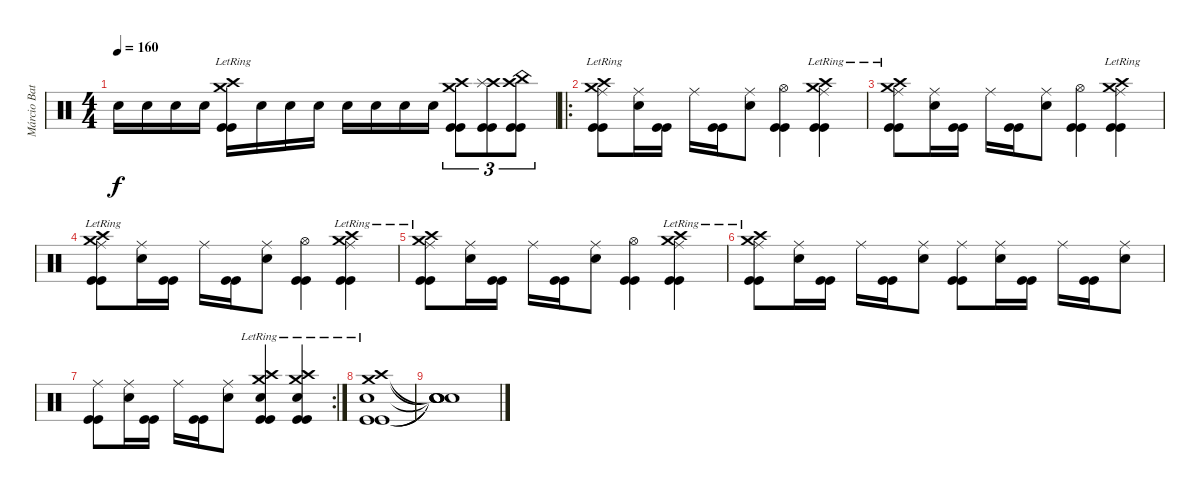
\track ("Márcio Batista" "Márcio Bat") {instrument percussion}
\staff {score}
\articulation defaults
\ts (4 4)
\tempo 160
\clef neutral
\ks c "Snare (hit) 2".16{dy f} "Snare (hit) 2".16 "Snare (hit) 2".16 "Snare (hit) 2".16
("Crash high (hit)"{lr} "Crash medium (hit)"{lr} "Kick (hit)" "Kick (hit)").16 "Snare (hit) 2".16 "Snare (hit) 2".16 "Snare (hit) 2".16 "Snare (hit) 2".16 "Snare (hit) 2".16 "Snare (hit) 2".16 "Snare (hit) 2".16 ("Crash high (hit)" "Crash medium (hit)" "Kick (hit)" "Kick (hit)").8{tu (3 2)} ("Crash high (hit)" "Splash (hit)" "Kick (hit)" "Kick (hit)").8{tu (3 2)} ("Crash high (hit)" "China (hit)" "Kick (hit)" "Kick (hit)").8{tu (3 2)} |
\ro
("Crash high (hit)"{lr} "Crash medium (hit)"{lr} "Ride (middle)" "Kick (hit)" "Kick (hit)").8 ("Snare (hit) 2" "Ride (middle)").16 ("Kick (hit)" "Kick (hit)").16 "Ride (middle)".16 ("Kick (hit)" "Kick (hit)").16 ("Snare (hit) 2" "Ride (middle)").8 ("Hi-Hat (open)" "Kick (hit)" "Kick (hit)").4 ("Crash high (hit)"{lr} "Crash medium (hit)"{lr} "Ride (middle)" "Kick (hit)" "Kick (hit)").4 |
("Crash high (hit)"{lr} "Crash medium (hit)"{lr} "Ride (middle)" "Kick (hit)" "Kick (hit)").8 ("Snare (hit) 2" "Ride (middle)").16 ("Kick (hit)" "Kick (hit)").16 "Ride (middle)".16 ("Kick (hit)" "Kick (hit)").16 ("Snare (hit) 2" "Ride (middle)").8 ("Hi-Hat (open)" "Kick (hit)" "Kick (hit)").4 ("Crash high (hit)"{lr} "Crash medium (hit)"{lr} "Ride (middle)" "Kick (hit)" "Kick (hit)").4 |
("Crash high (hit)"{lr} "Crash medium (hit)"{lr} "Ride (middle)" "Kick (hit)" "Kick (hit)").8 ("Snare (hit) 2" "Ride (middle)").16 ("Kick (hit)" "Kick (hit)").16 "Ride (middle)".16 ("Kick (hit)" "Kick (hit)").16 ("Snare (hit) 2" "Ride (middle)").8 ("Hi-Hat (open)" "Kick (hit)" "Kick (hit)").4 ("Crash high (hit)"{lr} "Crash medium (hit)"{lr} "Ride (middle)" "Kick (hit)" "Kick (hit)").4 |
("Crash high (hit)"{lr} "Crash medium (hit)"{lr} "Ride (middle)" "Kick (hit)" "Kick (hit)").8 ("Snare (hit) 2" "Ride (middle)").16 ("Kick (hit)" "Kick (hit)").16 "Ride (middle)".16 ("Kick (hit)" "Kick (hit)").16 ("Snare (hit) 2" "Ride (middle)").8 ("Hi-Hat (open)" "Kick (hit)" "Kick (hit)").4 ("Crash high (hit)"{lr} "Crash medium (hit)"{lr} "Ride (middle)" "Kick (hit)" "Kick (hit)").4 |
("Crash high (hit)"{lr} "Crash medium (hit)"{lr} "Ride (middle)" "Kick (hit)" "Kick (hit)").8 ("Snare (hit) 2" "Ride (middle)").16 ("Kick (hit)" "Kick (hit)").16 "Ride (middle)".16 ("Kick (hit)" "Kick (hit)").16 ("Snare (hit) 2" "Ride (middle)").8 ("Ride (middle)" "Kick (hit)" "Kick (hit)").8 ("Snare (hit) 2" "Ride (middle)").16 ("Kick (hit)" "Kick (hit)").16 "Ride (middle)".16 ("Kick (hit)" "Kick (hit)").16 ("Snare (hit) 2" "Ride (middle)").8 |
\rc 2
("Ride (middle)" "Kick (hit)" "Kick (hit)").8 ("Snare (hit) 2" "Ride (middle)").16 ("Kick (hit)" "Kick (hit)").16 "Ride (middle)".16 ("Kick (hit)" "Kick (hit)").16 ("Snare (hit) 2" "Ride (middle)").8 ("Crash high (hit)"{lr} "Crash medium (hit)"{lr} "Snare (hit) 2" "Kick (hit)" "Kick (hit)").4 ("Crash high (hit)"{lr} "Crash medium (hit)"{lr} "Snare (hit) 2" "Kick (hit)" "Kick (hit)").4 |
("Crash high (hit)"{lr} "Crash medium (hit)"{lr} "Snare (hit) 2" "Kick (hit)" "Kick (hit)").1 |
("Snare (hit)"{t} "Snare (hit)"{t} "Snare (hit)"{t} "Snare (hit)"{t} "Snare (hit)"{t}).1
